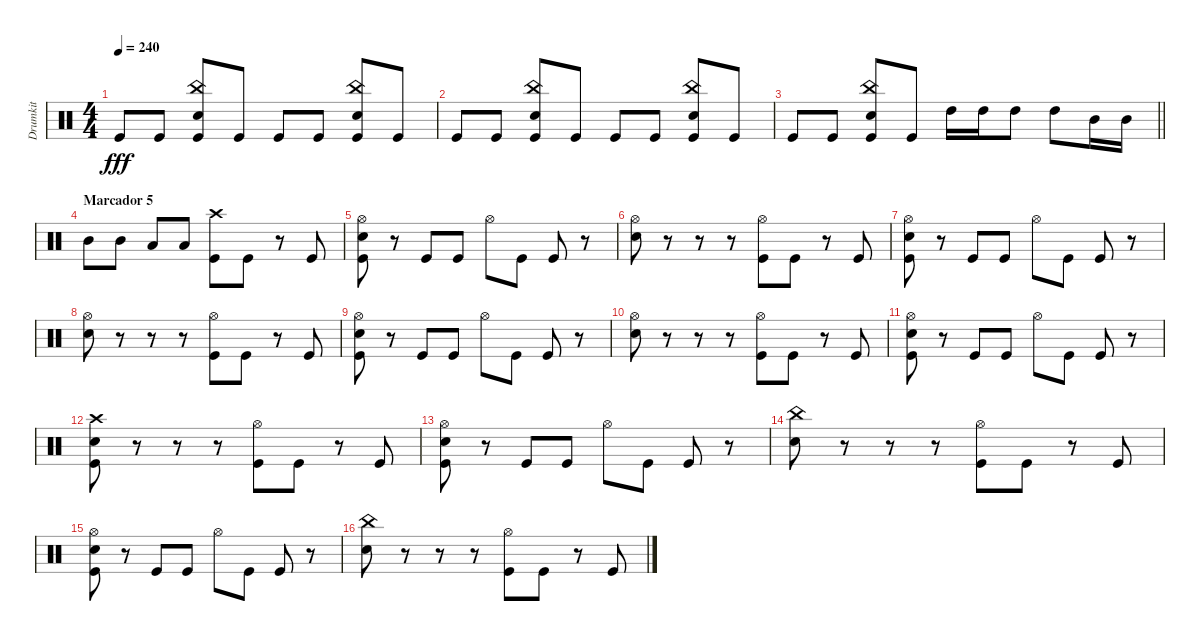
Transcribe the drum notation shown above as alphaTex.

\track ("Drumkit" "Drumkit") {instrument percussion}
\staff {score}
\articulation defaults
\ts (4 4)
\tempo 240
\clef neutral
\ks c "Kick (hit)".8{dy fff} "Kick (hit)".8
("China (hit)" "Snare (hit) 2" "Kick (hit)").8 "Kick (hit)".8 "Kick (hit)".8 "Kick (hit)".8 ("China (hit)" "Snare (hit) 2" "Kick (hit)").8 "Kick (hit)".8 |
"Kick (hit)".8 "Kick (hit)".8 ("China (hit)" "Snare (hit) 2" "Kick (hit)").8 "Kick (hit)".8 "Kick (hit)".8 "Kick (hit)".8 ("China (hit)" "Snare (hit) 2" "Kick (hit)").8 "Kick (hit)".8 |
\barLineRight lightlight "Kick (hit)".8 "Kick (hit)".8
("China (hit)" "Snare (hit) 2" "Kick (hit)").8 "Kick (hit)".8 "High Tom (hit)".16 "High Tom (hit)".16 "High Tom (hit)".8 "High Tom (hit)".8 "Mid Tom (hit)".16 "Mid Tom (hit)".16 |
\section ("" "Marcador 5")
"Mid Tom (hit)".8 "Mid Tom (hit)".8 "Low Tom (hit)".8 "Low Tom (hit)".8 ("Crash high (hit)" "Kick (hit)").8 "Kick (hit)".8 r.8 "Kick (hit)".8 |
("Hi-Hat (open)" "Snare (hit) 2" "Kick (hit)").8 r.8 "Kick (hit)".8 "Kick (hit)".8 "Hi-Hat (open)".8 "Kick (hit)".8 "Kick (hit)".8 r.8 |
("Hi-Hat (open)" "Snare (hit) 2").8 r.8 r.8 r.8 ("Hi-Hat (open)" "Kick (hit)").8 "Kick (hit)".8 r.8 "Kick (hit)".8 |
("Hi-Hat (open)" "Snare (hit) 2" "Kick (hit)").8 r.8 "Kick (hit)".8 "Kick (hit)".8 "Hi-Hat (open)".8 "Kick (hit)".8 "Kick (hit)".8 r.8 |
("Hi-Hat (open)" "Snare (hit) 2").8 r.8 r.8 r.8 ("Hi-Hat (open)" "Kick (hit)").8 "Kick (hit)".8 r.8 "Kick (hit)".8 |
("Hi-Hat (open)" "Snare (hit) 2" "Kick (hit)").8 r.8 "Kick (hit)".8 "Kick (hit)".8 "Hi-Hat (open)".8 "Kick (hit)".8 "Kick (hit)".8 r.8 |
("Hi-Hat (open)" "Snare (hit) 2").8 r.8 r.8 r.8 ("Hi-Hat (open)" "Kick (hit)").8 "Kick (hit)".8 r.8 "Kick (hit)".8 |
("Hi-Hat (open)" "Snare (hit) 2" "Kick (hit)").8 r.8 "Kick (hit)".8 "Kick (hit)".8 "Hi-Hat (open)".8 "Kick (hit)".8 "Kick (hit)".8 r.8 |
("Crash high (hit)" "Snare (hit) 2" "Kick (hit)").8 r.8 r.8 r.8 ("Hi-Hat (open)" "Kick (hit)").8 "Kick (hit)".8 r.8 "Kick (hit)".8 |
("Hi-Hat (open)" "Snare (hit) 2" "Kick (hit)").8 r.8 "Kick (hit)".8 "Kick (hit)".8 "Hi-Hat (open)".8 "Kick (hit)".8 "Kick (hit)".8 r.8 |
("China (hit)" "Snare (hit) 2").8 r.8 r.8 r.8 ("Hi-Hat (open)" "Kick (hit)").8 "Kick (hit)".8 r.8 "Kick (hit)".8 |
("Hi-Hat (open)" "Snare (hit) 2" "Kick (hit)").8 r.8 "Kick (hit)".8 "Kick (hit)".8 "Hi-Hat (open)".8 "Kick (hit)".8 "Kick (hit)".8 r.8 |
("China (hit)" "Snare (hit) 2").8 r.8 r.8 r.8 ("Hi-Hat (open)" "Kick (hit)").8 "Kick (hit)".8 r.8 "Kick (hit)".8
